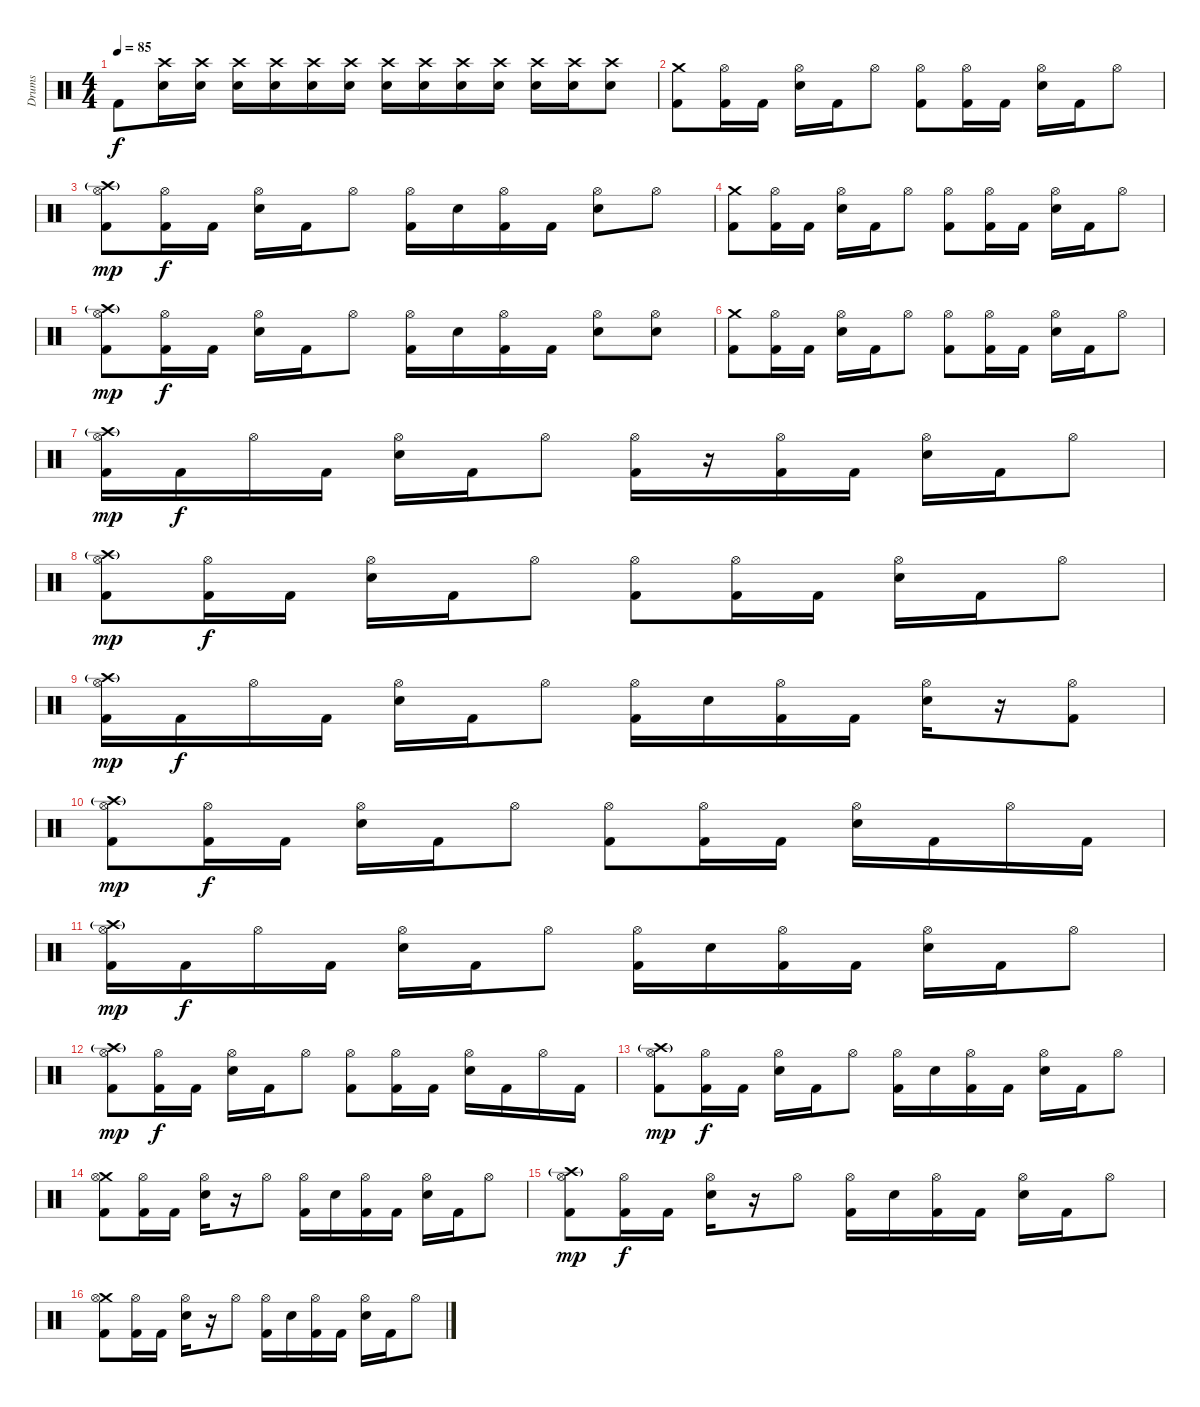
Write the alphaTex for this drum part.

\track ("Drums" "Drums") {instrument percussion}
\staff {score}
\articulation defaults
\ts (4 4)
\tempo 85
\clef neutral
\ks c "Kick (hit) 2".8{dy f}
("Crash high (hit)" "Electric Snare (hit)").16{volume 2} ("Crash high (hit)" "Electric Snare (hit)").16{volume 3} ("Crash high (hit)" "Electric Snare (hit)").16{volume 4} ("Crash high (hit)" "Electric Snare (hit)").16{volume 5} ("Crash high (hit)" "Electric Snare (hit)").16{volume 6} ("Crash high (hit)" "Electric Snare (hit)").16{volume 7} ("Crash high (hit)" "Electric Snare (hit)").16{volume 8} ("Crash high (hit)" "Electric Snare (hit)").16{volume 9} ("Crash high (hit)" "Electric Snare (hit)").16{volume 10} ("Crash high (hit)" "Electric Snare (hit)").16{volume 11} ("Crash high (hit)" "Electric Snare (hit)").16{volume 12} ("Crash high (hit)" "Electric Snare (hit)").16{volume 13} ("Crash high (hit)" "Electric Snare (hit)").8 |
("Crash medium (hit)" "Kick (hit) 2").8 ("Hi-Hat (open)" "Kick (hit) 2").16 "Kick (hit) 2".16 ("Hi-Hat (open)" "Electric Snare (hit)").16 "Kick (hit) 2".16 "Hi-Hat (open)".8 ("Hi-Hat (open)" "Kick (hit) 2").8 ("Hi-Hat (open)" "Kick (hit) 2").16 "Kick (hit) 2".16 ("Hi-Hat (open)" "Electric Snare (hit)").16 "Kick (hit) 2".16 "Hi-Hat (open)".8 |
("Crash high (hit)"{g} "Hi-Hat (open)" "Kick (hit) 2").8{dy mp} ("Hi-Hat (open)" "Kick (hit) 2").16{dy f} "Kick (hit) 2".16 ("Hi-Hat (open)" "Electric Snare (hit)").16 "Kick (hit) 2".16 "Hi-Hat (open)".8 ("Hi-Hat (open)" "Kick (hit) 2").16 "Electric Snare (hit)".16 ("Hi-Hat (open)" "Kick (hit) 2").16 "Kick (hit) 2".16 ("Hi-Hat (open)" "Electric Snare (hit)").8 "Hi-Hat (open)".8 |
("Crash medium (hit)" "Kick (hit) 2").8 ("Hi-Hat (open)" "Kick (hit) 2").16 "Kick (hit) 2".16 ("Hi-Hat (open)" "Electric Snare (hit)").16 "Kick (hit) 2".16 "Hi-Hat (open)".8 ("Hi-Hat (open)" "Kick (hit) 2").8 ("Hi-Hat (open)" "Kick (hit) 2").16 "Kick (hit) 2".16 ("Hi-Hat (open)" "Electric Snare (hit)").16 "Kick (hit) 2".16 "Hi-Hat (open)".8 |
("Crash high (hit)"{g} "Hi-Hat (open)" "Kick (hit) 2").8{dy mp} ("Hi-Hat (open)" "Kick (hit) 2").16{dy f} "Kick (hit) 2".16 ("Hi-Hat (open)" "Electric Snare (hit)").16 "Kick (hit) 2".16 "Hi-Hat (open)".8 ("Hi-Hat (open)" "Kick (hit) 2").16 "Electric Snare (hit)".16 ("Hi-Hat (open)" "Kick (hit) 2").16 "Kick (hit) 2".16 ("Hi-Hat (open)" "Electric Snare (hit)").8 ("Hi-Hat (open)" "Electric Snare (hit)").8 |
("Crash medium (hit)" "Kick (hit) 2").8 ("Hi-Hat (open)" "Kick (hit) 2").16 "Kick (hit) 2".16 ("Hi-Hat (open)" "Electric Snare (hit)").16 "Kick (hit) 2".16 "Hi-Hat (open)".8 ("Hi-Hat (open)" "Kick (hit) 2").8 ("Hi-Hat (open)" "Kick (hit) 2").16 "Kick (hit) 2".16 ("Hi-Hat (open)" "Electric Snare (hit)").16 "Kick (hit) 2".16 "Hi-Hat (open)".8 |
("Crash high (hit)"{g} "Hi-Hat (open)" "Kick (hit) 2").16{dy mp} "Kick (hit) 2".16{dy f} "Hi-Hat (open)".16 "Kick (hit) 2".16 ("Hi-Hat (open)" "Electric Snare (hit)").16 "Kick (hit) 2".16 "Hi-Hat (open)".8 ("Hi-Hat (open)" "Kick (hit) 2").16 r.16 ("Hi-Hat (open)" "Kick (hit) 2").16 "Kick (hit) 2".16 ("Hi-Hat (open)" "Electric Snare (hit)").16 "Kick (hit) 2".16 "Hi-Hat (open)".8 |
("Crash high (hit)"{g} "Hi-Hat (open)" "Kick (hit) 2").8{dy mp} ("Hi-Hat (open)" "Kick (hit) 2").16{dy f} "Kick (hit) 2".16 ("Hi-Hat (open)" "Electric Snare (hit)").16 "Kick (hit) 2".16 "Hi-Hat (open)".8 ("Hi-Hat (open)" "Kick (hit) 2").8 ("Hi-Hat (open)" "Kick (hit) 2").16 "Kick (hit) 2".16 ("Hi-Hat (open)" "Electric Snare (hit)").16 "Kick (hit) 2".16 "Hi-Hat (open)".8 |
("Crash high (hit)"{g} "Hi-Hat (open)" "Kick (hit) 2").16{dy mp} "Kick (hit) 2".16{dy f} "Hi-Hat (open)".16 "Kick (hit) 2".16 ("Hi-Hat (open)" "Electric Snare (hit)").16 "Kick (hit) 2".16 "Hi-Hat (open)".8 ("Hi-Hat (open)" "Kick (hit) 2").16 "Electric Snare (hit)".16 ("Hi-Hat (open)" "Kick (hit) 2").16 "Kick (hit) 2".16 ("Hi-Hat (open)" "Electric Snare (hit)").16 r.16 ("Hi-Hat (open)" "Kick (hit) 2").8 |
("Crash high (hit)"{g} "Hi-Hat (open)" "Kick (hit) 2").8{dy mp} ("Hi-Hat (open)" "Kick (hit) 2").16{dy f} "Kick (hit) 2".16 ("Hi-Hat (open)" "Electric Snare (hit)").16 "Kick (hit) 2".16 "Hi-Hat (open)".8 ("Hi-Hat (open)" "Kick (hit) 2").8 ("Hi-Hat (open)" "Kick (hit) 2").16 "Kick (hit) 2".16 ("Hi-Hat (open)" "Electric Snare (hit)").16 "Kick (hit) 2".16 "Hi-Hat (open)".16 "Kick (hit) 2".16 |
("Crash high (hit)"{g} "Hi-Hat (open)" "Kick (hit) 2").16{dy mp} "Kick (hit) 2".16{dy f} "Hi-Hat (open)".16 "Kick (hit) 2".16 ("Hi-Hat (open)" "Electric Snare (hit)").16 "Kick (hit) 2".16 "Hi-Hat (open)".8 ("Hi-Hat (open)" "Kick (hit) 2").16 "Electric Snare (hit)".16 ("Hi-Hat (open)" "Kick (hit) 2").16 "Kick (hit) 2".16 ("Hi-Hat (open)" "Electric Snare (hit)").16 "Kick (hit) 2".16 "Hi-Hat (open)".8 |
("Crash high (hit)"{g} "Hi-Hat (open)" "Kick (hit) 2").8{dy mp} ("Hi-Hat (open)" "Kick (hit) 2").16{dy f} "Kick (hit) 2".16 ("Hi-Hat (open)" "Electric Snare (hit)").16 "Kick (hit) 2".16 "Hi-Hat (open)".8 ("Hi-Hat (open)" "Kick (hit) 2").8 ("Hi-Hat (open)" "Kick (hit) 2").16 "Kick (hit) 2".16 ("Hi-Hat (open)" "Electric Snare (hit)").16 "Kick (hit) 2".16 "Hi-Hat (open)".16 "Kick (hit) 2".16 |
("Crash high (hit)"{g} "Hi-Hat (open)" "Kick (hit) 2").8{dy mp} ("Hi-Hat (open)" "Kick (hit) 2").16{dy f} "Kick (hit) 2".16 ("Hi-Hat (open)" "Electric Snare (hit)").16 "Kick (hit) 2".16 "Hi-Hat (open)".8 ("Hi-Hat (open)" "Kick (hit) 2").16 "Electric Snare (hit)".16 ("Hi-Hat (open)" "Kick (hit) 2").16 "Kick (hit) 2".16 ("Hi-Hat (open)" "Electric Snare (hit)").16 "Kick (hit) 2".16 "Hi-Hat (open)".8 |
("Crash medium (hit)" "Hi-Hat (open)" "Kick (hit) 2").8 ("Hi-Hat (open)" "Kick (hit) 2").16 "Kick (hit) 2".16 ("Hi-Hat (open)" "Electric Snare (hit)").16 r.16 "Hi-Hat (open)".8 ("Hi-Hat (open)" "Kick (hit) 2").16 "Electric Snare (hit)".16 ("Hi-Hat (open)" "Kick (hit) 2").16 "Kick (hit) 2".16 ("Hi-Hat (open)" "Electric Snare (hit)").16 "Kick (hit) 2".16 "Hi-Hat (open)".8 |
("Crash high (hit)"{g} "Hi-Hat (open)" "Kick (hit) 2").8{dy mp} ("Hi-Hat (open)" "Kick (hit) 2").16{dy f} "Kick (hit) 2".16 ("Hi-Hat (open)" "Electric Snare (hit)").16 r.16 "Hi-Hat (open)".8 ("Hi-Hat (open)" "Kick (hit) 2").16 "Electric Snare (hit)".16 ("Hi-Hat (open)" "Kick (hit) 2").16 "Kick (hit) 2".16 ("Hi-Hat (open)" "Electric Snare (hit)").16 "Kick (hit) 2".16 "Hi-Hat (open)".8 |
("Crash medium (hit)" "Hi-Hat (open)" "Kick (hit) 2").8 ("Hi-Hat (open)" "Kick (hit) 2").16 "Kick (hit) 2".16 ("Hi-Hat (open)" "Electric Snare (hit)").16 r.16 "Hi-Hat (open)".8 ("Hi-Hat (open)" "Kick (hit) 2").16 "Electric Snare (hit)".16 ("Hi-Hat (open)" "Kick (hit) 2").16 "Kick (hit) 2".16 ("Hi-Hat (open)" "Electric Snare (hit)").16 "Kick (hit) 2".16 "Hi-Hat (open)".8
